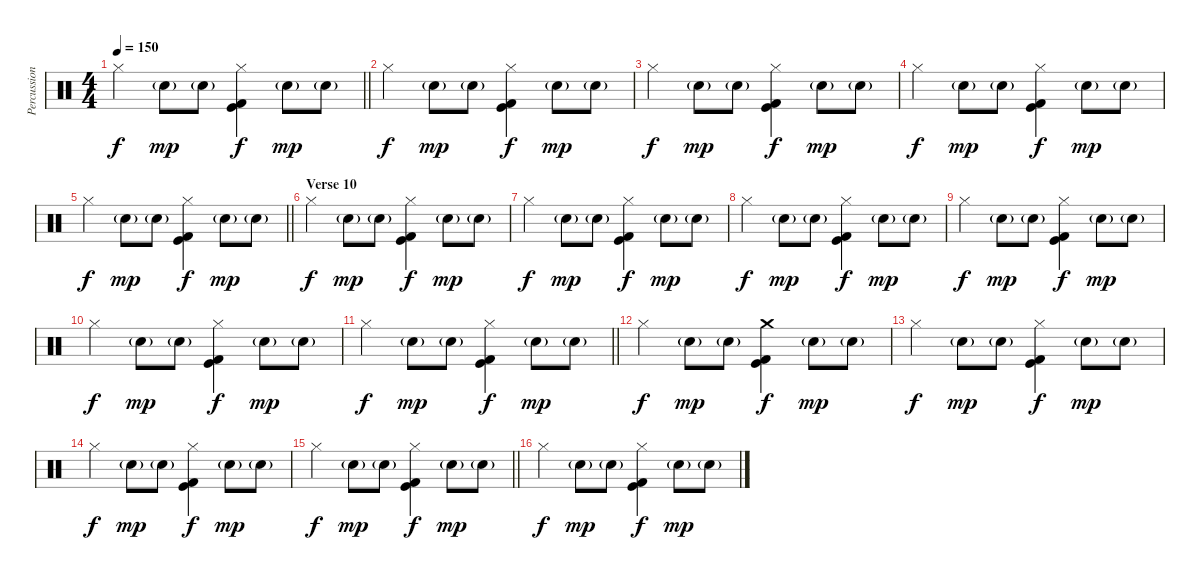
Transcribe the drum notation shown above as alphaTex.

\track ("Percussion" "Percussion") {instrument percussion}
\staff {score}
\articulation defaults
\ts (4 4)
\tempo 150
\clef neutral
\barLineRight lightlight
\ks c "Hi-Hat (closed)".4{dy f} "Hand Clap (hit)"{g}.8{dy mp} "Hand Clap (hit)"{g}.8
("Hi-Hat (closed)" "Kick (hit)" "Kick (hit) 2").4{dy f} "Hand Clap (hit)"{g}.8{dy mp} "Hand Clap (hit)"{g}.8 |
\section ("" "")
"Hi-Hat (closed)".4{dy f} "Hand Clap (hit)"{g}.8{dy mp} "Hand Clap (hit)"{g}.8 ("Hi-Hat (closed)" "Kick (hit)" "Kick (hit) 2").4{dy f} "Hand Clap (hit)"{g}.8{dy mp} "Hand Clap (hit)"{g}.8 |
"Hi-Hat (closed)".4{dy f} "Hand Clap (hit)"{g}.8{dy mp} "Hand Clap (hit)"{g}.8 ("Hi-Hat (closed)" "Kick (hit)" "Kick (hit) 2").4{dy f} "Hand Clap (hit)"{g}.8{dy mp} "Hand Clap (hit)"{g}.8 |
"Hi-Hat (closed)".4{dy f} "Hand Clap (hit)"{g}.8{dy mp} "Hand Clap (hit)"{g}.8 ("Hi-Hat (closed)" "Kick (hit)" "Kick (hit) 2").4{dy f} "Hand Clap (hit)"{g}.8{dy mp} "Hand Clap (hit)"{g}.8 |
\barLineRight lightlight "Hi-Hat (closed)".4{dy f} "Hand Clap (hit)"{g}.8{dy mp} "Hand Clap (hit)"{g}.8
("Hi-Hat (closed)" "Kick (hit)" "Kick (hit) 2").4{dy f} "Hand Clap (hit)"{g}.8{dy mp} "Hand Clap (hit)"{g}.8 |
\section ("" "Verse 10")
"Hi-Hat (closed)".4{dy f} "Hand Clap (hit)"{g}.8{dy mp} "Hand Clap (hit)"{g}.8 ("Hi-Hat (closed)" "Kick (hit)" "Kick (hit) 2").4{dy f} "Hand Clap (hit)"{g}.8{dy mp} "Hand Clap (hit)"{g}.8 |
"Hi-Hat (closed)".4{dy f} "Hand Clap (hit)"{g}.8{dy mp} "Hand Clap (hit)"{g}.8 ("Hi-Hat (closed)" "Kick (hit)" "Kick (hit) 2").4{dy f} "Hand Clap (hit)"{g}.8{dy mp} "Hand Clap (hit)"{g}.8 |
"Hi-Hat (closed)".4{dy f} "Hand Clap (hit)"{g}.8{dy mp} "Hand Clap (hit)"{g}.8 ("Hi-Hat (closed)" "Kick (hit)" "Kick (hit) 2").4{dy f} "Hand Clap (hit)"{g}.8{dy mp} "Hand Clap (hit)"{g}.8 |
"Hi-Hat (closed)".4{dy f} "Hand Clap (hit)"{g}.8{dy mp} "Hand Clap (hit)"{g}.8 ("Hi-Hat (closed)" "Kick (hit)" "Kick (hit) 2").4{dy f} "Hand Clap (hit)"{g}.8{dy mp} "Hand Clap (hit)"{g}.8 |
"Hi-Hat (closed)".4{dy f} "Hand Clap (hit)"{g}.8{dy mp} "Hand Clap (hit)"{g}.8 ("Hi-Hat (closed)" "Kick (hit)" "Kick (hit) 2").4{dy f} "Hand Clap (hit)"{g}.8{dy mp} "Hand Clap (hit)"{g}.8 |
\barLineRight lightlight "Hi-Hat (closed)".4{dy f} "Hand Clap (hit)"{g}.8{dy mp} "Hand Clap (hit)"{g}.8
("Hi-Hat (closed)" "Kick (hit)" "Kick (hit) 2").4{dy f} "Hand Clap (hit)"{g}.8{dy mp} "Hand Clap (hit)"{g}.8 |
\section ("" "")
"Hi-Hat (closed)".4{dy f} "Hand Clap (hit)"{g}.8{dy mp} "Hand Clap (hit)"{g}.8 ("Crash medium (hit)" "Kick (hit)" "Kick (hit) 2").4{dy f} "Hand Clap (hit)"{g}.8{dy mp} "Hand Clap (hit)"{g}.8 |
"Hi-Hat (closed)".4{dy f} "Hand Clap (hit)"{g}.8{dy mp} "Hand Clap (hit)"{g}.8 ("Hi-Hat (closed)" "Kick (hit)" "Kick (hit) 2").4{dy f} "Hand Clap (hit)"{g}.8{dy mp} "Hand Clap (hit)"{g}.8 |
"Hi-Hat (closed)".4{dy f} "Hand Clap (hit)"{g}.8{dy mp} "Hand Clap (hit)"{g}.8 ("Hi-Hat (closed)" "Kick (hit)" "Kick (hit) 2").4{dy f} "Hand Clap (hit)"{g}.8{dy mp} "Hand Clap (hit)"{g}.8 |
\barLineRight lightlight "Hi-Hat (closed)".4{dy f} "Hand Clap (hit)"{g}.8{dy mp} "Hand Clap (hit)"{g}.8
("Hi-Hat (closed)" "Kick (hit)" "Kick (hit) 2").4{dy f} "Hand Clap (hit)"{g}.8{dy mp} "Hand Clap (hit)"{g}.8 |
\section ("" "")
"Hi-Hat (closed)".4{dy f} "Hand Clap (hit)"{g}.8{dy mp} "Hand Clap (hit)"{g}.8 ("Hi-Hat (closed)" "Kick (hit)" "Kick (hit) 2").4{dy f} "Hand Clap (hit)"{g}.8{dy mp} "Hand Clap (hit)"{g}.8
